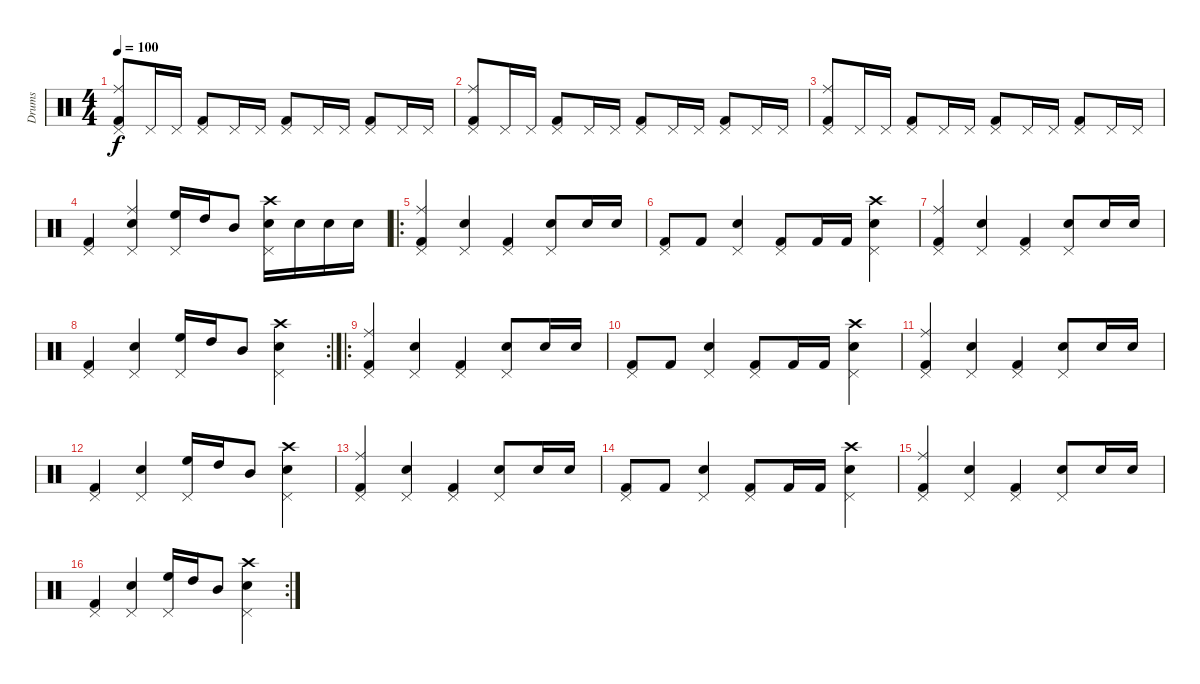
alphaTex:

\track ("Drums" "Drums") {instrument percussion}
\staff {score}
\articulation defaults
\ts (4 4)
\tempo 100
\clef neutral
\ks c
("Pedal Hi-Hat (hit)" "Ride (middle)" "Kick (hit) 2").8{dy f} "Pedal Hi-Hat (hit)".16 "Pedal Hi-Hat (hit)".16 ("Pedal Hi-Hat (hit)" "Kick (hit) 2").8 "Pedal Hi-Hat (hit)".16 "Pedal Hi-Hat (hit)".16 ("Pedal Hi-Hat (hit)" "Kick (hit) 2").8 "Pedal Hi-Hat (hit)".16 "Pedal Hi-Hat (hit)".16 ("Pedal Hi-Hat (hit)" "Kick (hit) 2").8 "Pedal Hi-Hat (hit)".16 "Pedal Hi-Hat (hit)".16 |
("Pedal Hi-Hat (hit)" "Ride (middle)" "Kick (hit) 2").8 "Pedal Hi-Hat (hit)".16 "Pedal Hi-Hat (hit)".16 ("Pedal Hi-Hat (hit)" "Kick (hit) 2").8 "Pedal Hi-Hat (hit)".16 "Pedal Hi-Hat (hit)".16 ("Pedal Hi-Hat (hit)" "Kick (hit) 2").8 "Pedal Hi-Hat (hit)".16 "Pedal Hi-Hat (hit)".16 ("Pedal Hi-Hat (hit)" "Kick (hit) 2").8 "Pedal Hi-Hat (hit)".16 "Pedal Hi-Hat (hit)".16 |
("Pedal Hi-Hat (hit)" "Ride (middle)" "Kick (hit) 2").8 "Pedal Hi-Hat (hit)".16 "Pedal Hi-Hat (hit)".16 ("Pedal Hi-Hat (hit)" "Kick (hit) 2").8 "Pedal Hi-Hat (hit)".16 "Pedal Hi-Hat (hit)".16 ("Pedal Hi-Hat (hit)" "Kick (hit) 2").8 "Pedal Hi-Hat (hit)".16 "Pedal Hi-Hat (hit)".16 ("Pedal Hi-Hat (hit)" "Kick (hit) 2").8 "Pedal Hi-Hat (hit)".16 "Pedal Hi-Hat (hit)".16 |
("Pedal Hi-Hat (hit)" "Kick (hit) 2").4 ("Pedal Hi-Hat (hit)" "Electric Snare (hit)" "Ride (middle)").4 ("Pedal Hi-Hat (hit)" "High Floor Tom (hit)").16 "High Tom (hit)".16 "Mid Tom (hit)".8 ("Crash high (hit)" "Electric Snare (hit)" "Pedal Hi-Hat (hit)").16 "Electric Snare (hit)".16 "Electric Snare (hit)".16 "Electric Snare (hit)".16 |
\ro
("Pedal Hi-Hat (hit)" "Ride (middle)" "Kick (hit) 2").4 ("Pedal Hi-Hat (hit)" "Electric Snare (hit)").4 ("Pedal Hi-Hat (hit)" "Kick (hit) 2").4 ("Pedal Hi-Hat (hit)" "Electric Snare (hit)").8 "Electric Snare (hit)".16 "Snare (hit) 2".16 |
("Pedal Hi-Hat (hit)" "Kick (hit) 2").8 "Kick (hit) 2".8 ("Pedal Hi-Hat (hit)" "Electric Snare (hit)").4 ("Pedal Hi-Hat (hit)" "Kick (hit) 2").8 "Kick (hit) 2".16 "Kick (hit) 2".16 ("Crash high (hit)" "Electric Snare (hit)" "Pedal Hi-Hat (hit)").4 |
("Pedal Hi-Hat (hit)" "Ride (middle)" "Kick (hit) 2").4 ("Pedal Hi-Hat (hit)" "Electric Snare (hit)").4 ("Pedal Hi-Hat (hit)" "Kick (hit) 2").4 ("Pedal Hi-Hat (hit)" "Electric Snare (hit)").8 "Electric Snare (hit)".16 "Electric Snare (hit)".16 |
\rc 2
("Pedal Hi-Hat (hit)" "Kick (hit) 2").4 ("Pedal Hi-Hat (hit)" "Electric Snare (hit)").4 ("Pedal Hi-Hat (hit)" "High Floor Tom (hit)").16 "High Tom (hit)".16 "Mid Tom (hit)".8 ("Crash high (hit)" "Electric Snare (hit)" "Pedal Hi-Hat (hit)").4 |
\ro
("Pedal Hi-Hat (hit)" "Ride (middle)" "Kick (hit) 2").4 ("Pedal Hi-Hat (hit)" "Electric Snare (hit)").4 ("Pedal Hi-Hat (hit)" "Kick (hit) 2").4 ("Pedal Hi-Hat (hit)" "Electric Snare (hit)").8 "Electric Snare (hit)".16 "Snare (hit) 2".16 |
("Pedal Hi-Hat (hit)" "Kick (hit) 2").8 "Kick (hit) 2".8 ("Pedal Hi-Hat (hit)" "Electric Snare (hit)").4 ("Pedal Hi-Hat (hit)" "Kick (hit) 2").8 "Kick (hit) 2".16 "Kick (hit) 2".16 ("Crash high (hit)" "Electric Snare (hit)" "Pedal Hi-Hat (hit)").4 |
("Pedal Hi-Hat (hit)" "Ride (middle)" "Kick (hit) 2").4 ("Pedal Hi-Hat (hit)" "Electric Snare (hit)").4 ("Pedal Hi-Hat (hit)" "Kick (hit) 2").4 ("Pedal Hi-Hat (hit)" "Electric Snare (hit)").8 "Electric Snare (hit)".16 "Electric Snare (hit)".16 |
("Pedal Hi-Hat (hit)" "Kick (hit) 2").4 ("Pedal Hi-Hat (hit)" "Electric Snare (hit)").4 ("Pedal Hi-Hat (hit)" "High Floor Tom (hit)").16 "High Tom (hit)".16 "Mid Tom (hit)".8 ("Crash high (hit)" "Electric Snare (hit)" "Pedal Hi-Hat (hit)").4 |
("Pedal Hi-Hat (hit)" "Ride (middle)" "Kick (hit) 2").4 ("Pedal Hi-Hat (hit)" "Electric Snare (hit)").4 ("Pedal Hi-Hat (hit)" "Kick (hit) 2").4 ("Pedal Hi-Hat (hit)" "Electric Snare (hit)").8 "Electric Snare (hit)".16 "Snare (hit) 2".16 |
("Pedal Hi-Hat (hit)" "Kick (hit) 2").8 "Kick (hit) 2".8 ("Pedal Hi-Hat (hit)" "Electric Snare (hit)").4 ("Pedal Hi-Hat (hit)" "Kick (hit) 2").8 "Kick (hit) 2".16 "Kick (hit) 2".16 ("Crash high (hit)" "Electric Snare (hit)" "Pedal Hi-Hat (hit)").4 |
("Pedal Hi-Hat (hit)" "Ride (middle)" "Kick (hit) 2").4 ("Pedal Hi-Hat (hit)" "Electric Snare (hit)").4 ("Pedal Hi-Hat (hit)" "Kick (hit) 2").4 ("Pedal Hi-Hat (hit)" "Electric Snare (hit)").8 "Electric Snare (hit)".16 "Electric Snare (hit)".16 |
\rc 2
("Pedal Hi-Hat (hit)" "Kick (hit) 2").4 ("Pedal Hi-Hat (hit)" "Electric Snare (hit)").4 ("Pedal Hi-Hat (hit)" "High Floor Tom (hit)").16 "High Tom (hit)".16 "Mid Tom (hit)".8 ("Crash high (hit)" "Electric Snare (hit)" "Pedal Hi-Hat (hit)").4
